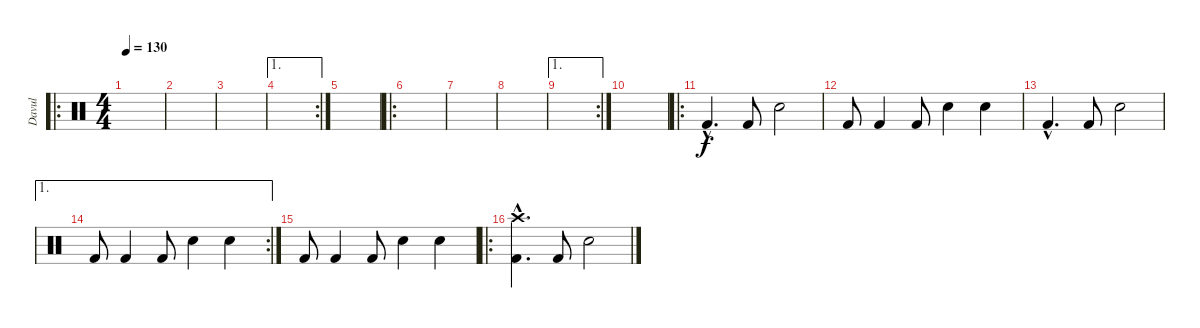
\track ("Davul" "Davul") {instrument percussion}
\staff {score}
\articulation defaults
\ro
\ts (4 4)
\tempo 130
\clef neutral
\ks c
|
|
|
\ae 1
\rc 2
|
|
\ro
|
|
|
\ae 1
\rc 2
|
|
\ro "Kick (hit) 2"{hac}.4{d} "Kick (hit) 2".8 "Electric Snare (hit)".2
|
"Kick (hit) 2".8 "Kick (hit) 2".4 "Kick (hit) 2".8 "Electric Snare (hit)".4 "Electric Snare (hit)".4 |
"Kick (hit) 2"{hac}.4{d} "Kick (hit) 2".8 "Electric Snare (hit)".2 |
\ae 1
\rc 2 "Kick (hit) 2".8 "Kick (hit) 2".4 "Kick (hit) 2".8 "Electric Snare (hit)".4 "Electric Snare (hit)".4
|
"Kick (hit) 2".8 "Kick (hit) 2".4 "Kick (hit) 2".8 "Electric Snare (hit)".4 "Electric Snare (hit)".4 |
\ro
("Kick (hit) 2"{hac} "Crash high (hit)"{hac}).4{d} "Kick (hit) 2".8 "Electric Snare (hit)".2
